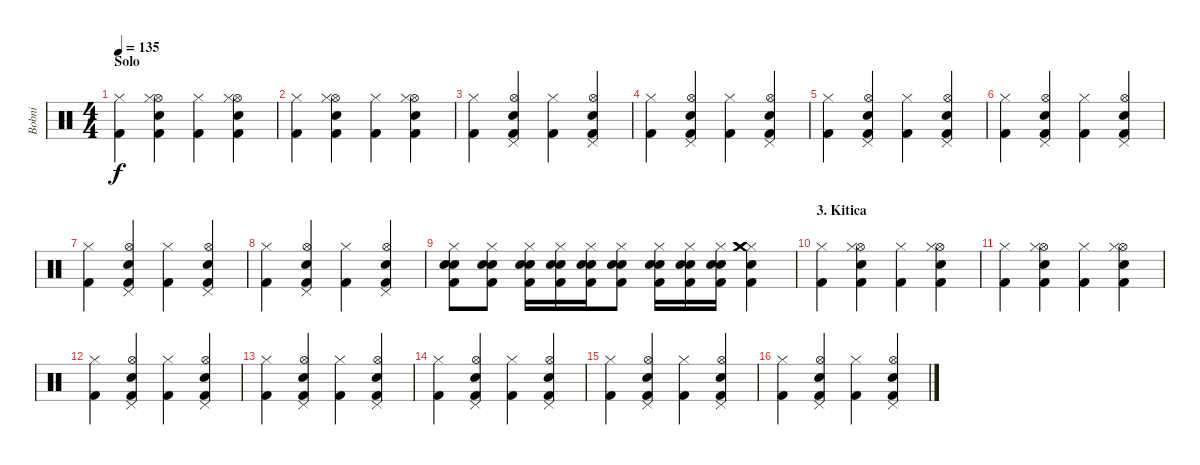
\track ("Bobni" "Bobni") {instrument percussion}
\staff {score}
\articulation defaults
\ts (4 4)
\section ("" "Solo")
\tempo 135
\clef neutral
\ks c
("Hi-Hat (closed)" "Kick (hit) 2").4{dy f} ("Hi-Hat (open)" "Snare (hit) 2" "Hi-Hat (closed)" "Kick (hit) 2").4 ("Hi-Hat (closed)" "Kick (hit) 2").4 ("Hi-Hat (open)" "Snare (hit) 2" "Hi-Hat (closed)" "Kick (hit) 2").4 |
("Hi-Hat (closed)" "Kick (hit) 2").4 ("Hi-Hat (open)" "Snare (hit) 2" "Hi-Hat (closed)" "Kick (hit) 2").4 ("Hi-Hat (closed)" "Kick (hit) 2").4 ("Hi-Hat (open)" "Snare (hit) 2" "Hi-Hat (closed)" "Kick (hit) 2").4 |
("Hi-Hat (closed)" "Kick (hit) 2").4 ("Hi-Hat (open)" "Snare (hit) 2" "Pedal Hi-Hat (hit)" "Kick (hit) 2").4 ("Hi-Hat (closed)" "Kick (hit) 2").4 ("Hi-Hat (open)" "Snare (hit) 2" "Pedal Hi-Hat (hit)" "Kick (hit) 2").4 |
("Hi-Hat (closed)" "Kick (hit) 2").4 ("Hi-Hat (open)" "Snare (hit) 2" "Pedal Hi-Hat (hit)" "Kick (hit) 2").4 ("Hi-Hat (closed)" "Kick (hit) 2").4 ("Hi-Hat (open)" "Snare (hit) 2" "Pedal Hi-Hat (hit)" "Kick (hit) 2").4 |
("Hi-Hat (closed)" "Kick (hit) 2").4 ("Hi-Hat (open)" "Snare (hit) 2" "Pedal Hi-Hat (hit)" "Kick (hit) 2").4 ("Hi-Hat (closed)" "Kick (hit) 2").4 ("Hi-Hat (open)" "Snare (hit) 2" "Pedal Hi-Hat (hit)" "Kick (hit) 2").4 |
("Hi-Hat (closed)" "Kick (hit) 2").4 ("Hi-Hat (open)" "Snare (hit) 2" "Pedal Hi-Hat (hit)" "Kick (hit) 2").4 ("Hi-Hat (closed)" "Kick (hit) 2").4 ("Hi-Hat (open)" "Snare (hit) 2" "Pedal Hi-Hat (hit)" "Kick (hit) 2").4 |
("Hi-Hat (closed)" "Kick (hit) 2").4 ("Hi-Hat (open)" "Snare (hit) 2" "Pedal Hi-Hat (hit)" "Kick (hit) 2").4 ("Hi-Hat (closed)" "Kick (hit) 2").4 ("Hi-Hat (open)" "Snare (hit) 2" "Pedal Hi-Hat (hit)" "Kick (hit) 2").4 |
("Hi-Hat (closed)" "Kick (hit) 2").4 ("Hi-Hat (open)" "Snare (hit) 2" "Pedal Hi-Hat (hit)" "Kick (hit) 2").4 ("Hi-Hat (closed)" "Kick (hit) 2").4 ("Hi-Hat (open)" "Snare (hit) 2" "Pedal Hi-Hat (hit)" "Kick (hit) 2").4 |
("Hi-Hat (closed)" "Snare (hit) 2" "Snare (hit) 2" "Kick (hit) 2").8 ("Hi-Hat (closed)" "Snare (hit) 2" "Snare (hit) 2" "Kick (hit) 2").8 ("Hi-Hat (closed)" "Snare (hit) 2" "Snare (hit) 2" "Kick (hit) 2").16 ("Hi-Hat (closed)" "Snare (hit) 2" "Snare (hit) 2" "Kick (hit) 2").16 ("Hi-Hat (closed)" "Snare (hit) 2" "Snare (hit) 2" "Kick (hit) 2").16 ("Hi-Hat (closed)" "Snare (hit) 2" "Snare (hit) 2" "Kick (hit) 2").8 ("Hi-Hat (closed)" "Snare (hit) 2" "Snare (hit) 2" "Kick (hit) 2").16 ("Hi-Hat (closed)" "Snare (hit) 2" "Snare (hit) 2" "Kick (hit) 2").16 ("Hi-Hat (closed)" "Snare (hit) 2" "Snare (hit) 2" "Kick (hit) 2").16 ("Hi-Hat (closed)" "Crash medium (hit)" "Snare (hit) 2" "Crash medium (hit)" "Crash medium (hit)" "Kick (hit) 2").4 |
\section ("" "3. Kitica")
("Hi-Hat (closed)" "Kick (hit) 2").4 ("Hi-Hat (open)" "Snare (hit) 2" "Hi-Hat (closed)" "Kick (hit) 2").4 ("Hi-Hat (closed)" "Kick (hit) 2").4 ("Hi-Hat (open)" "Snare (hit) 2" "Hi-Hat (closed)" "Kick (hit) 2").4 |
("Hi-Hat (closed)" "Kick (hit) 2").4 ("Hi-Hat (open)" "Snare (hit) 2" "Hi-Hat (closed)" "Kick (hit) 2").4 ("Hi-Hat (closed)" "Kick (hit) 2").4 ("Hi-Hat (open)" "Snare (hit) 2" "Hi-Hat (closed)" "Kick (hit) 2").4 |
("Hi-Hat (closed)" "Kick (hit) 2").4 ("Hi-Hat (open)" "Snare (hit) 2" "Pedal Hi-Hat (hit)" "Kick (hit) 2").4 ("Hi-Hat (closed)" "Kick (hit) 2").4 ("Hi-Hat (open)" "Snare (hit) 2" "Pedal Hi-Hat (hit)" "Kick (hit) 2").4 |
("Hi-Hat (closed)" "Kick (hit) 2").4 ("Hi-Hat (open)" "Snare (hit) 2" "Pedal Hi-Hat (hit)" "Kick (hit) 2").4 ("Hi-Hat (closed)" "Kick (hit) 2").4 ("Hi-Hat (open)" "Snare (hit) 2" "Pedal Hi-Hat (hit)" "Kick (hit) 2").4 |
("Hi-Hat (closed)" "Kick (hit) 2").4 ("Hi-Hat (open)" "Snare (hit) 2" "Pedal Hi-Hat (hit)" "Kick (hit) 2").4 ("Hi-Hat (closed)" "Kick (hit) 2").4 ("Hi-Hat (open)" "Snare (hit) 2" "Pedal Hi-Hat (hit)" "Kick (hit) 2").4 |
("Hi-Hat (closed)" "Kick (hit) 2").4 ("Hi-Hat (open)" "Snare (hit) 2" "Pedal Hi-Hat (hit)" "Kick (hit) 2").4 ("Hi-Hat (closed)" "Kick (hit) 2").4 ("Hi-Hat (open)" "Snare (hit) 2" "Pedal Hi-Hat (hit)" "Kick (hit) 2").4 |
("Hi-Hat (closed)" "Kick (hit) 2").4 ("Hi-Hat (open)" "Snare (hit) 2" "Pedal Hi-Hat (hit)" "Kick (hit) 2").4 ("Hi-Hat (closed)" "Kick (hit) 2").4 ("Hi-Hat (open)" "Snare (hit) 2" "Pedal Hi-Hat (hit)" "Kick (hit) 2").4
